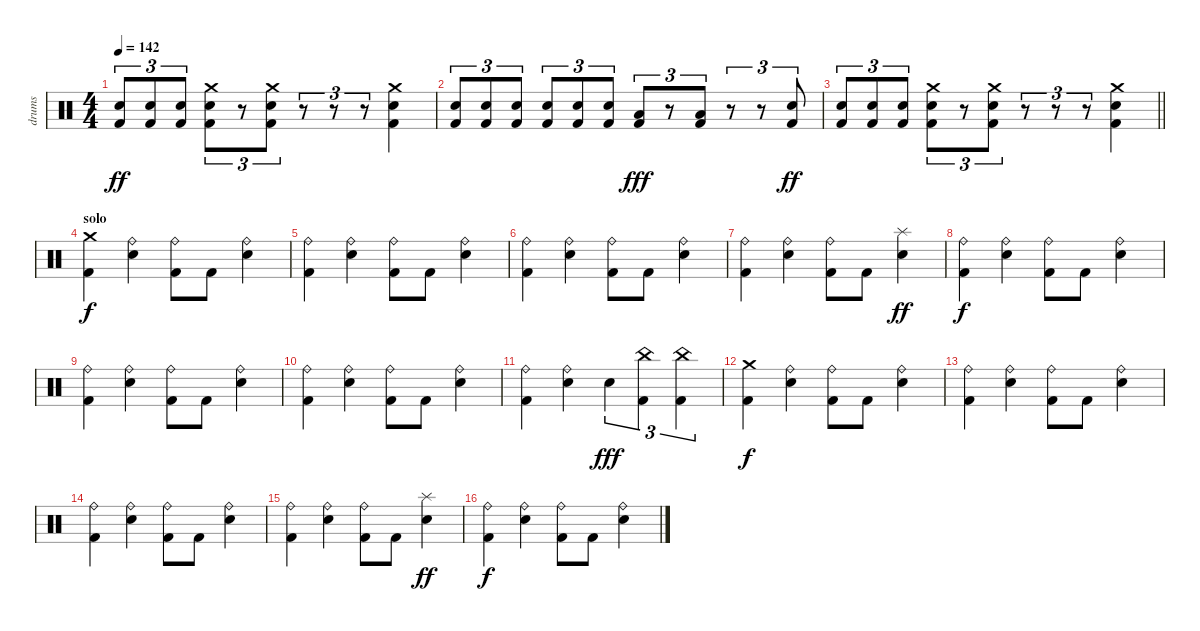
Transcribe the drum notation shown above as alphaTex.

\track ("drums" "drums") {instrument percussion}
\staff {score}
\articulation defaults
\ts (4 4)
\tempo 142
\clef neutral
\ks c
("Electric Snare (hit)" "Kick (hit) 2").8{tu (3 2) dy ff} ("Electric Snare (hit)" "Kick (hit) 2").8{tu (3 2)} ("Electric Snare (hit)" "Kick (hit) 2").8{tu (3 2)} ("Crash medium (hit)" "Electric Snare (hit)" "Kick (hit) 2").8{tu (3 2)} r.8{tu (3 2)} ("Crash medium (hit)" "Electric Snare (hit)" "Kick (hit) 2").8{tu (3 2)} r.8{tu (3 2)} r.8{tu (3 2)} r.8{tu (3 2)} ("Crash medium (hit)" "Electric Snare (hit)" "Kick (hit) 2").4 |
("Electric Snare (hit)" "Kick (hit) 2").8{tu (3 2)} ("Electric Snare (hit)" "Kick (hit) 2").8{tu (3 2)} ("Electric Snare (hit)" "Kick (hit) 2").8{tu (3 2)} ("Electric Snare (hit)" "Kick (hit) 2").8{tu (3 2)} ("Electric Snare (hit)" "Kick (hit) 2").8{tu (3 2)} ("Electric Snare (hit)" "Kick (hit) 2").8{tu (3 2)} ("Low Floor Tom (hit)" "Kick (hit) 2").8{tu (3 2) dy fff} r.8{tu (3 2)} ("Low Floor Tom (hit)" "Kick (hit) 2").8{tu (3 2)} r.8{tu (3 2)} r.8{tu (3 2)} ("Electric Snare (hit)" "Kick (hit) 2").8{tu (3 2) dy ff} |
\barLineRight lightlight
("Electric Snare (hit)" "Kick (hit) 2").8{tu (3 2)} ("Electric Snare (hit)" "Kick (hit) 2").8{tu (3 2)} ("Electric Snare (hit)" "Kick (hit) 2").8{tu (3 2)} ("Crash medium (hit)" "Electric Snare (hit)" "Kick (hit) 2").8{tu (3 2)} r.8{tu (3 2)} ("Crash medium (hit)" "Electric Snare (hit)" "Kick (hit) 2").8{tu (3 2)} r.8{tu (3 2)} r.8{tu (3 2)} r.8{tu (3 2)} ("Crash medium (hit)" "Electric Snare (hit)" "Kick (hit) 2").4 |
\section ("" "solo")
("Crash medium (hit)" "Kick (hit) 2").4{dy f volume 10} ("Ride (bell)" "Electric Snare (hit)").4 ("Ride (bell)" "Kick (hit) 2").8 "Kick (hit) 2".8 ("Ride (bell)" "Electric Snare (hit)").4 |
("Ride (bell)" "Kick (hit) 2").4 ("Ride (bell)" "Electric Snare (hit)").4 ("Ride (bell)" "Kick (hit) 2").8 "Kick (hit) 2".8 ("Ride (bell)" "Electric Snare (hit)").4 |
("Ride (bell)" "Kick (hit) 2").4 ("Ride (bell)" "Electric Snare (hit)").4 ("Ride (bell)" "Kick (hit) 2").8 "Kick (hit) 2".8 ("Ride (bell)" "Electric Snare (hit)").4 |
("Ride (bell)" "Kick (hit) 2").4 ("Ride (bell)" "Electric Snare (hit)").4 ("Ride (bell)" "Kick (hit) 2").8 "Kick (hit) 2".8 ("Splash (hit)" "Electric Snare (hit)").4{dy ff} |
("Ride (bell)" "Kick (hit) 2").4{dy f} ("Ride (bell)" "Electric Snare (hit)").4 ("Ride (bell)" "Kick (hit) 2").8 "Kick (hit) 2".8 ("Ride (bell)" "Electric Snare (hit)").4 |
("Ride (bell)" "Kick (hit) 2").4 ("Ride (bell)" "Electric Snare (hit)").4 ("Ride (bell)" "Kick (hit) 2").8 "Kick (hit) 2".8 ("Ride (bell)" "Electric Snare (hit)").4 |
("Ride (bell)" "Kick (hit) 2").4 ("Ride (bell)" "Electric Snare (hit)").4 ("Ride (bell)" "Kick (hit) 2").8 "Kick (hit) 2".8 ("Ride (bell)" "Electric Snare (hit)").4 |
("Ride (bell)" "Kick (hit) 2").4 ("Ride (bell)" "Electric Snare (hit)").4 "Electric Snare (hit)".4{tu (3 2) dy fff} ("China (hit)" "Kick (hit) 2").4{tu (3 2)} ("China (hit)" "Kick (hit) 2").4{tu (3 2)} |
("Crash medium (hit)" "Kick (hit) 2").4{dy f} ("Ride (bell)" "Electric Snare (hit)").4 ("Ride (bell)" "Kick (hit) 2").8 "Kick (hit) 2".8 ("Ride (bell)" "Electric Snare (hit)").4 |
("Ride (bell)" "Kick (hit) 2").4 ("Ride (bell)" "Electric Snare (hit)").4 ("Ride (bell)" "Kick (hit) 2").8 "Kick (hit) 2".8 ("Ride (bell)" "Electric Snare (hit)").4 |
("Ride (bell)" "Kick (hit) 2").4 ("Ride (bell)" "Electric Snare (hit)").4 ("Ride (bell)" "Kick (hit) 2").8 "Kick (hit) 2".8 ("Ride (bell)" "Electric Snare (hit)").4 |
("Ride (bell)" "Kick (hit) 2").4 ("Ride (bell)" "Electric Snare (hit)").4 ("Ride (bell)" "Kick (hit) 2").8 "Kick (hit) 2".8 ("Splash (hit)" "Electric Snare (hit)").4{dy ff} |
("Ride (bell)" "Kick (hit) 2").4{dy f} ("Ride (bell)" "Electric Snare (hit)").4 ("Ride (bell)" "Kick (hit) 2").8 "Kick (hit) 2".8 ("Ride (bell)" "Electric Snare (hit)").4
